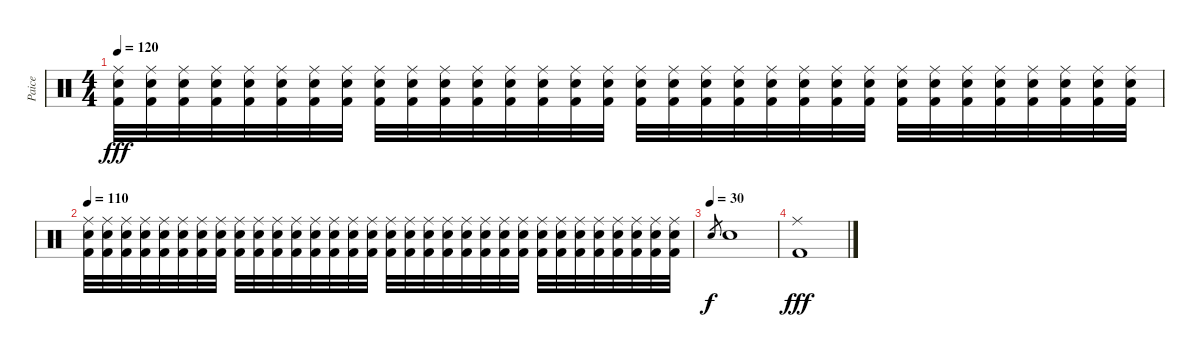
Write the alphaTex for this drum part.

\track ("Paice" "Paice") {instrument percussion}
\staff {score}
\articulation defaults
\ts (4 4)
\tempo 120
\clef neutral
\ks c
("Ride (middle)" "Snare (hit) 2" "Kick (hit) 2").32{dy fff volume 10} ("Ride (middle)" "Snare (hit) 2" "Kick (hit) 2").32 ("Ride (middle)" "Snare (hit) 2" "Kick (hit) 2").32 ("Ride (middle)" "Snare (hit) 2" "Kick (hit) 2").32 ("Ride (middle)" "Snare (hit) 2" "Kick (hit) 2").32 ("Ride (middle)" "Snare (hit) 2" "Kick (hit) 2").32 ("Ride (middle)" "Snare (hit) 2" "Kick (hit) 2").32 ("Ride (middle)" "Snare (hit) 2" "Kick (hit) 2").32 ("Ride (middle)" "Snare (hit) 2" "Kick (hit) 2").32 ("Ride (middle)" "Snare (hit) 2" "Kick (hit) 2").32 ("Ride (middle)" "Snare (hit) 2" "Kick (hit) 2").32 ("Ride (middle)" "Snare (hit) 2" "Kick (hit) 2").32 ("Ride (middle)" "Snare (hit) 2" "Kick (hit) 2").32 ("Ride (middle)" "Snare (hit) 2" "Kick (hit) 2").32 ("Ride (middle)" "Snare (hit) 2" "Kick (hit) 2").32 ("Ride (middle)" "Snare (hit) 2" "Kick (hit) 2").32 ("Ride (middle)" "Snare (hit) 2" "Kick (hit) 2").32 ("Ride (middle)" "Snare (hit) 2" "Kick (hit) 2").32 ("Ride (middle)" "Snare (hit) 2" "Kick (hit) 2").32 ("Ride (middle)" "Snare (hit) 2" "Kick (hit) 2").32 ("Ride (middle)" "Snare (hit) 2" "Kick (hit) 2").32 ("Ride (middle)" "Snare (hit) 2" "Kick (hit) 2").32 ("Ride (middle)" "Snare (hit) 2" "Kick (hit) 2").32 ("Ride (middle)" "Snare (hit) 2" "Kick (hit) 2").32 ("Ride (middle)" "Snare (hit) 2" "Kick (hit) 2").32 ("Ride (middle)" "Snare (hit) 2" "Kick (hit) 2").32 ("Ride (middle)" "Snare (hit) 2" "Kick (hit) 2").32 ("Ride (middle)" "Snare (hit) 2" "Kick (hit) 2").32 ("Ride (middle)" "Snare (hit) 2" "Kick (hit) 2").32 ("Ride (middle)" "Snare (hit) 2" "Kick (hit) 2").32 ("Ride (middle)" "Snare (hit) 2" "Kick (hit) 2").32 ("Ride (middle)" "Snare (hit) 2" "Kick (hit) 2").32 |
\tempo 110
("Ride (middle)" "Snare (hit) 2" "Kick (hit) 2").32 ("Ride (middle)" "Snare (hit) 2" "Kick (hit) 2").32 ("Ride (middle)" "Snare (hit) 2" "Kick (hit) 2").32 ("Ride (middle)" "Snare (hit) 2" "Kick (hit) 2").32 ("Ride (middle)" "Snare (hit) 2" "Kick (hit) 2").32 ("Ride (middle)" "Snare (hit) 2" "Kick (hit) 2").32 ("Ride (middle)" "Snare (hit) 2" "Kick (hit) 2").32 ("Ride (middle)" "Snare (hit) 2" "Kick (hit) 2").32 ("Ride (middle)" "Snare (hit) 2" "Kick (hit) 2").32 ("Ride (middle)" "Snare (hit) 2" "Kick (hit) 2").32 ("Ride (middle)" "Snare (hit) 2" "Kick (hit) 2").32 ("Ride (middle)" "Snare (hit) 2" "Kick (hit) 2").32 ("Ride (middle)" "Snare (hit) 2" "Kick (hit) 2").32 ("Ride (middle)" "Snare (hit) 2" "Kick (hit) 2").32 ("Ride (middle)" "Snare (hit) 2" "Kick (hit) 2").32 ("Ride (middle)" "Snare (hit) 2" "Kick (hit) 2").32 ("Ride (middle)" "Snare (hit) 2" "Kick (hit) 2").32 ("Ride (middle)" "Snare (hit) 2" "Kick (hit) 2").32 ("Ride (middle)" "Snare (hit) 2" "Kick (hit) 2").32 ("Ride (middle)" "Snare (hit) 2" "Kick (hit) 2").32 ("Ride (middle)" "Snare (hit) 2" "Kick (hit) 2").32 ("Ride (middle)" "Snare (hit) 2" "Kick (hit) 2").32 ("Ride (middle)" "Snare (hit) 2" "Kick (hit) 2").32 ("Ride (middle)" "Snare (hit) 2" "Kick (hit) 2").32 ("Ride (middle)" "Snare (hit) 2" "Kick (hit) 2").32 ("Ride (middle)" "Snare (hit) 2" "Kick (hit) 2").32 ("Ride (middle)" "Snare (hit) 2" "Kick (hit) 2").32 ("Ride (middle)" "Snare (hit) 2" "Kick (hit) 2").32 ("Ride (middle)" "Snare (hit) 2" "Kick (hit) 2").32 ("Ride (middle)" "Snare (hit) 2" "Kick (hit) 2").32 ("Ride (middle)" "Snare (hit) 2" "Kick (hit) 2").32 ("Ride (middle)" "Snare (hit) 2" "Kick (hit) 2").32 |
\tempo (30)
"Snare (hit) 2".8{gr dy f} "Snare (hit) 2".1 |
("Ride (middle)" "Kick (hit) 2").1{dy fff}
